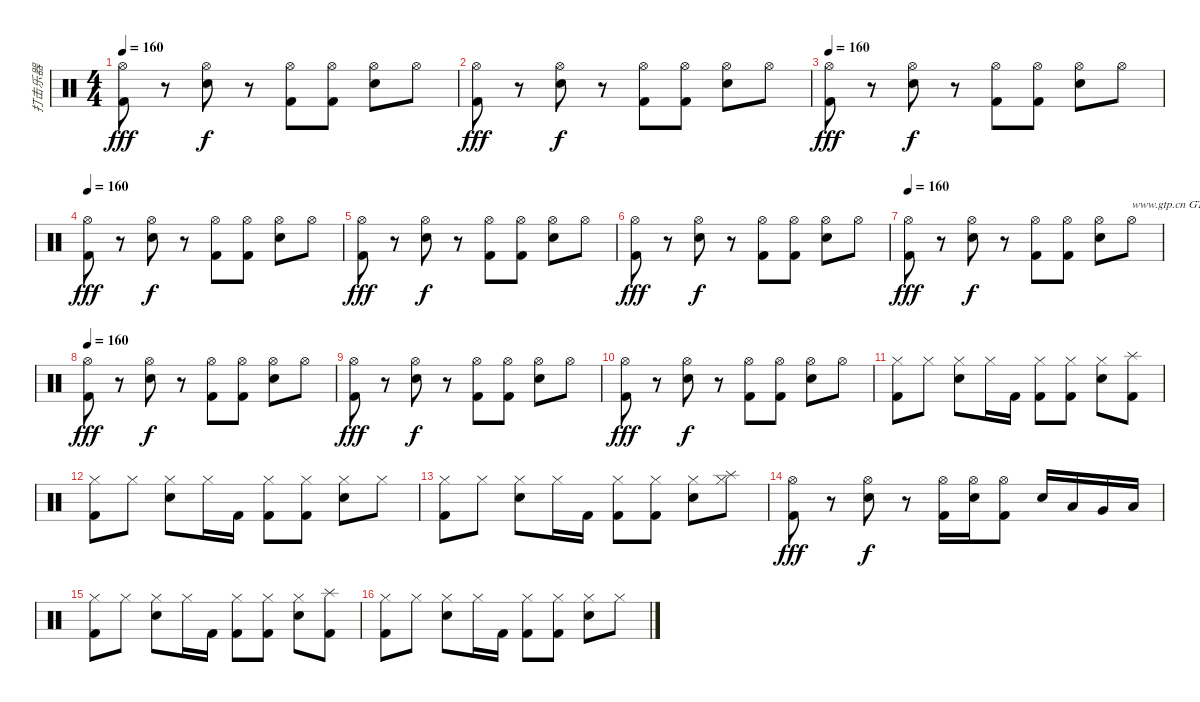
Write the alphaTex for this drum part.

\track ("打击乐器" "打击乐器") {instrument percussion}
\staff {score}
\articulation defaults
\ts (4 4)
\tempo 160
\clef neutral
\ks c
("Hi-Hat (open)" "Kick (hit) 2").8{dy fff} r.8 ("Hi-Hat (open)" "Electric Snare (hit)").8{dy f} r.8 ("Hi-Hat (open)" "Kick (hit) 2").8 ("Hi-Hat (open)" "Kick (hit) 2").8 ("Hi-Hat (open)" "Electric Snare (hit)").8 "Hi-Hat (open)".8 |
("Hi-Hat (open)" "Kick (hit) 2").8{dy fff} r.8 ("Hi-Hat (open)" "Electric Snare (hit)").8{dy f} r.8 ("Hi-Hat (open)" "Kick (hit) 2").8 ("Hi-Hat (open)" "Kick (hit) 2").8 ("Hi-Hat (open)" "Electric Snare (hit)").8 "Hi-Hat (open)".8 |
\tempo 160
("Hi-Hat (open)" "Kick (hit) 2").8{dy fff} r.8 ("Hi-Hat (open)" "Electric Snare (hit)").8{dy f} r.8 ("Hi-Hat (open)" "Kick (hit) 2").8 ("Hi-Hat (open)" "Kick (hit) 2").8 ("Hi-Hat (open)" "Electric Snare (hit)").8 "Hi-Hat (open)".8 |
\tempo 160
("Hi-Hat (open)" "Kick (hit) 2").8{dy fff} r.8 ("Hi-Hat (open)" "Electric Snare (hit)").8{dy f} r.8 ("Hi-Hat (open)" "Kick (hit) 2").8 ("Hi-Hat (open)" "Kick (hit) 2").8 ("Hi-Hat (open)" "Electric Snare (hit)").8 "Hi-Hat (open)".8 |
("Hi-Hat (open)" "Kick (hit) 2").8{dy fff} r.8 ("Hi-Hat (open)" "Electric Snare (hit)").8{dy f} r.8 ("Hi-Hat (open)" "Kick (hit) 2").8 ("Hi-Hat (open)" "Kick (hit) 2").8 ("Hi-Hat (open)" "Electric Snare (hit)").8 "Hi-Hat (open)".8 |
("Hi-Hat (open)" "Kick (hit) 2").8{dy fff} r.8 ("Hi-Hat (open)" "Electric Snare (hit)").8{dy f} r.8 ("Hi-Hat (open)" "Kick (hit) 2").8 ("Hi-Hat (open)" "Kick (hit) 2").8 ("Hi-Hat (open)" "Electric Snare (hit)").8 "Hi-Hat (open)".8 |
\tempo 160
("Hi-Hat (open)" "Kick (hit) 2").8{dy fff} r.8 ("Hi-Hat (open)" "Electric Snare (hit)").8{dy f} r.8 ("Hi-Hat (open)" "Kick (hit) 2").8 ("Hi-Hat (open)" "Kick (hit) 2").8 ("Hi-Hat (open)" "Electric Snare (hit)").8 "Hi-Hat (open)".8{txt "www.gtp.cn GTP中文娱乐网为您提供优秀的谱子"} |
\tempo 160
("Hi-Hat (open)" "Kick (hit) 2").8{dy fff} r.8 ("Hi-Hat (open)" "Electric Snare (hit)").8{dy f} r.8 ("Hi-Hat (open)" "Kick (hit) 2").8 ("Hi-Hat (open)" "Kick (hit) 2").8 ("Hi-Hat (open)" "Electric Snare (hit)").8 "Hi-Hat (open)".8 |
("Hi-Hat (open)" "Kick (hit) 2").8{dy fff} r.8 ("Hi-Hat (open)" "Electric Snare (hit)").8{dy f} r.8 ("Hi-Hat (open)" "Kick (hit) 2").8 ("Hi-Hat (open)" "Kick (hit) 2").8 ("Hi-Hat (open)" "Electric Snare (hit)").8 "Hi-Hat (open)".8 |
("Hi-Hat (open)" "Kick (hit) 2").8{dy fff} r.8 ("Hi-Hat (open)" "Electric Snare (hit)").8{dy f} r.8 ("Hi-Hat (open)" "Kick (hit) 2").8 ("Hi-Hat (open)" "Kick (hit) 2").8 ("Hi-Hat (open)" "Electric Snare (hit)").8 "Hi-Hat (open)".8 |
("Kick (hit) 2" "Hi-Hat (closed)").8 "Hi-Hat (closed)".8 ("Electric Snare (hit)" "Hi-Hat (closed)").8 "Hi-Hat (closed)".16 "Kick (hit) 2".16 ("Kick (hit) 2" "Hi-Hat (closed)").8 ("Kick (hit) 2" "Hi-Hat (closed)").8 ("Electric Snare (hit)" "Hi-Hat (closed)").8 ("Kick (hit) 2" "Splash (hit)").8 |
("Kick (hit) 2" "Hi-Hat (closed)").8 "Hi-Hat (closed)".8 ("Electric Snare (hit)" "Hi-Hat (closed)").8 "Hi-Hat (closed)".16 "Kick (hit) 2".16 ("Kick (hit) 2" "Hi-Hat (closed)").8 ("Kick (hit) 2" "Hi-Hat (closed)").8 ("Electric Snare (hit)" "Hi-Hat (closed)").8 "Hi-Hat (closed)".8 |
("Kick (hit) 2" "Hi-Hat (closed)").8 "Hi-Hat (closed)".8 ("Electric Snare (hit)" "Hi-Hat (closed)").8 "Hi-Hat (closed)".16 "Kick (hit) 2".16 ("Kick (hit) 2" "Hi-Hat (closed)").8 ("Kick (hit) 2" "Hi-Hat (closed)").8 ("Electric Snare (hit)" "Hi-Hat (closed)").8 ("Splash (hit)" "Hi-Hat (closed)").8 |
("Hi-Hat (open)" "Kick (hit) 2").8{dy fff} r.8 ("Hi-Hat (open)" "Electric Snare (hit)").8{dy f} r.8 ("Hi-Hat (open)" "Kick (hit) 2").16 ("Hi-Hat (open)" "Electric Snare (hit)").16 ("Hi-Hat (open)" "Kick (hit) 2").8 "Electric Snare (hit)".16 "Low Tom (hit)".16 "Very Low Tom (hit)".16 "Low Floor Tom (hit)".16 |
("Kick (hit) 2" "Hi-Hat (closed)").8 "Hi-Hat (closed)".8 ("Electric Snare (hit)" "Hi-Hat (closed)").8 "Hi-Hat (closed)".16 "Kick (hit) 2".16 ("Kick (hit) 2" "Hi-Hat (closed)").8 ("Kick (hit) 2" "Hi-Hat (closed)").8 ("Electric Snare (hit)" "Hi-Hat (closed)").8 ("Kick (hit) 2" "Splash (hit)").8 |
("Kick (hit) 2" "Hi-Hat (closed)").8 "Hi-Hat (closed)".8 ("Electric Snare (hit)" "Hi-Hat (closed)").8 "Hi-Hat (closed)".16 "Kick (hit) 2".16 ("Kick (hit) 2" "Hi-Hat (closed)").8 ("Kick (hit) 2" "Hi-Hat (closed)").8 ("Electric Snare (hit)" "Hi-Hat (closed)").8 "Hi-Hat (closed)".8
